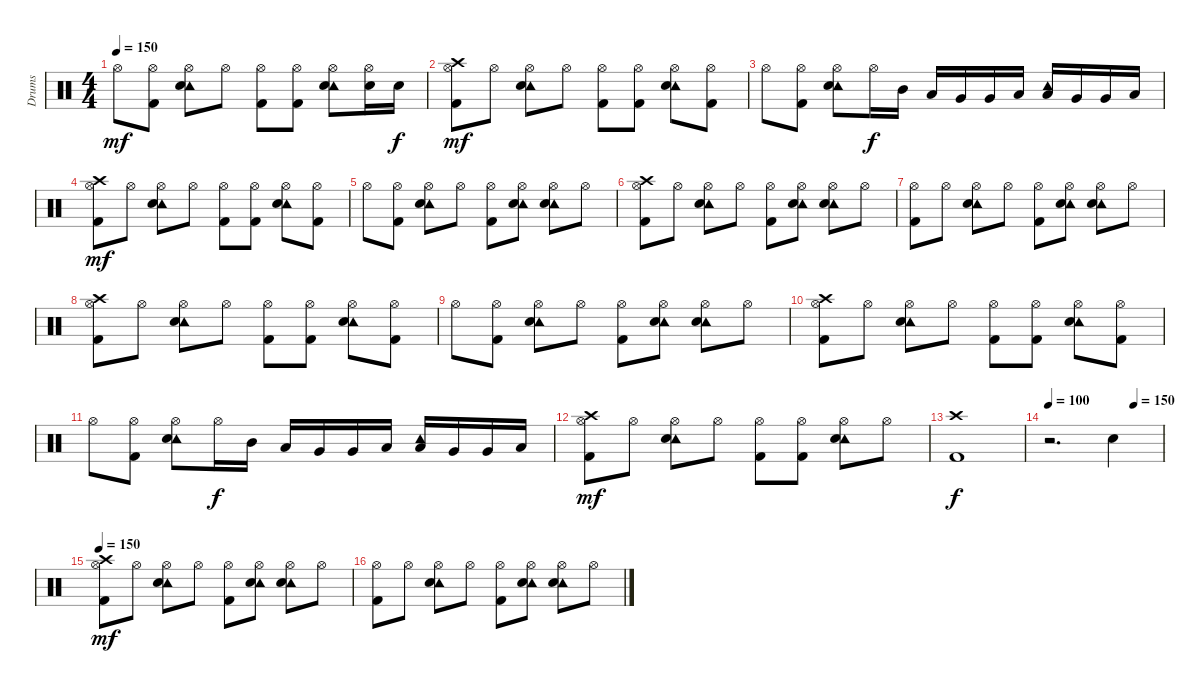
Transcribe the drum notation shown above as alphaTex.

\track ("Drums" "Drums") {instrument percussion}
\staff {score}
\articulation defaults
\ts (4 4)
\tempo 150
\clef neutral
\ks c "Hi-Hat (open)".8{dy mf}
("Hi-Hat (open)" "Kick (hit) 2").8 ("Tambourine (hit)" "Hi-Hat (open)" "Snare (hit) 2").8 "Hi-Hat (open)".8 ("Hi-Hat (open)" "Kick (hit) 2").8 ("Hi-Hat (open)" "Kick (hit) 2").8 ("Tambourine (hit)" "Hi-Hat (open)" "Snare (hit) 2").8 ("Hi-Hat (open)" "Snare (hit) 2").16 "Snare (hit) 2".16{dy f} |
("Crash high (hit)" "Hi-Hat (open)" "Kick (hit) 2").8{dy mf} "Hi-Hat (open)".8 ("Tambourine (hit)" "Hi-Hat (open)" "Snare (hit) 2").8 "Hi-Hat (open)".8 ("Hi-Hat (open)" "Kick (hit) 2").8 ("Hi-Hat (open)" "Kick (hit) 2").8 ("Tambourine (hit)" "Hi-Hat (open)" "Snare (hit) 2").8 ("Hi-Hat (open)" "Kick (hit) 2").8 |
"Hi-Hat (open)".8 ("Hi-Hat (open)" "Kick (hit) 2").8 ("Tambourine (hit)" "Hi-Hat (open)" "Snare (hit) 2").8 "Hi-Hat (open)".16{dy f} "Mid Tom (hit)".16 "Low Tom (hit)".16 "Very Low Tom (hit)".16 "Very Low Tom (hit)".16 "Low Floor Tom (hit)".16 ("Tambourine (hit)" "Low Floor Tom (hit)").16 "Very Low Tom (hit)".16 "Very Low Tom (hit)".16 "Low Tom (hit)".16 |
("Crash high (hit)" "Hi-Hat (open)" "Kick (hit) 2").8{dy mf} "Hi-Hat (open)".8 ("Tambourine (hit)" "Hi-Hat (open)" "Snare (hit) 2").8 "Hi-Hat (open)".8 ("Hi-Hat (open)" "Kick (hit) 2").8 ("Hi-Hat (open)" "Kick (hit) 2").8 ("Tambourine (hit)" "Hi-Hat (open)" "Snare (hit) 2").8 ("Hi-Hat (open)" "Kick (hit) 2").8 |
"Hi-Hat (open)".8 ("Hi-Hat (open)" "Kick (hit) 2").8 ("Tambourine (hit)" "Hi-Hat (open)" "Snare (hit) 2").8 "Hi-Hat (open)".8 ("Hi-Hat (open)" "Kick (hit) 2").8 ("Tambourine (hit)" "Hi-Hat (open)" "Snare (hit) 2").8 ("Tambourine (hit)" "Hi-Hat (open)" "Snare (hit) 2").8 "Hi-Hat (open)".8 |
("Crash high (hit)" "Hi-Hat (open)" "Kick (hit) 2").8 "Hi-Hat (open)".8 ("Tambourine (hit)" "Hi-Hat (open)" "Snare (hit) 2").8 "Hi-Hat (open)".8 ("Hi-Hat (open)" "Kick (hit) 2").8 ("Tambourine (hit)" "Hi-Hat (open)" "Snare (hit) 2").8 ("Tambourine (hit)" "Hi-Hat (open)" "Snare (hit) 2").8 "Hi-Hat (open)".8 |
("Hi-Hat (open)" "Kick (hit) 2").8 "Hi-Hat (open)".8 ("Tambourine (hit)" "Hi-Hat (open)" "Snare (hit) 2").8 "Hi-Hat (open)".8 ("Hi-Hat (open)" "Kick (hit) 2").8 ("Tambourine (hit)" "Hi-Hat (open)" "Snare (hit) 2").8 ("Tambourine (hit)" "Hi-Hat (open)" "Snare (hit) 2").8 "Hi-Hat (open)".8 |
("Crash high (hit)" "Hi-Hat (open)" "Kick (hit) 2").8 "Hi-Hat (open)".8 ("Tambourine (hit)" "Hi-Hat (open)" "Snare (hit) 2").8 "Hi-Hat (open)".8 ("Hi-Hat (open)" "Kick (hit) 2").8 ("Hi-Hat (open)" "Kick (hit) 2").8 ("Tambourine (hit)" "Hi-Hat (open)" "Snare (hit) 2").8 ("Hi-Hat (open)" "Kick (hit) 2").8 |
"Hi-Hat (open)".8 ("Hi-Hat (open)" "Kick (hit) 2").8 ("Tambourine (hit)" "Hi-Hat (open)" "Snare (hit) 2").8 "Hi-Hat (open)".8 ("Hi-Hat (open)" "Kick (hit) 2").8 ("Tambourine (hit)" "Hi-Hat (open)" "Snare (hit) 2").8 ("Tambourine (hit)" "Hi-Hat (open)" "Snare (hit) 2").8 "Hi-Hat (open)".8 |
("Crash high (hit)" "Hi-Hat (open)" "Kick (hit) 2").8 "Hi-Hat (open)".8 ("Tambourine (hit)" "Hi-Hat (open)" "Snare (hit) 2").8 "Hi-Hat (open)".8 ("Hi-Hat (open)" "Kick (hit) 2").8 ("Hi-Hat (open)" "Kick (hit) 2").8 ("Tambourine (hit)" "Hi-Hat (open)" "Snare (hit) 2").8 ("Hi-Hat (open)" "Kick (hit) 2").8 |
"Hi-Hat (open)".8 ("Hi-Hat (open)" "Kick (hit) 2").8 ("Tambourine (hit)" "Hi-Hat (open)" "Snare (hit) 2").8 "Hi-Hat (open)".16{dy f} "Mid Tom (hit)".16 "Low Tom (hit)".16 "Very Low Tom (hit)".16 "Very Low Tom (hit)".16 "Low Floor Tom (hit)".16 ("Tambourine (hit)" "Low Floor Tom (hit)").16 "Very Low Tom (hit)".16 "Very Low Tom (hit)".16 "Low Tom (hit)".16 |
("Crash high (hit)" "Hi-Hat (open)" "Kick (hit) 2").8{dy mf} "Hi-Hat (open)".8 ("Tambourine (hit)" "Hi-Hat (open)" "Snare (hit) 2").8 "Hi-Hat (open)".8 ("Hi-Hat (open)" "Kick (hit) 2").8 ("Hi-Hat (open)" "Kick (hit) 2").8 ("Tambourine (hit)" "Hi-Hat (open)" "Snare (hit) 2").8 "Hi-Hat (open)".8 |
("Crash high (hit)" "Kick (hit) 2").1{dy f} |
\tempo 100
\tempo (150 0.75)
r.2{d} "Snare (hit) 2".4 |
\tempo 150
("Crash high (hit)" "Hi-Hat (open)" "Kick (hit) 2").8{dy mf} "Hi-Hat (open)".8 ("Tambourine (hit)" "Hi-Hat (open)" "Snare (hit) 2").8 "Hi-Hat (open)".8 ("Hi-Hat (open)" "Kick (hit) 2").8 ("Tambourine (hit)" "Hi-Hat (open)" "Snare (hit) 2").8 ("Tambourine (hit)" "Hi-Hat (open)" "Snare (hit) 2").8 "Hi-Hat (open)".8 |
("Hi-Hat (open)" "Kick (hit) 2").8 "Hi-Hat (open)".8 ("Tambourine (hit)" "Hi-Hat (open)" "Snare (hit) 2").8 "Hi-Hat (open)".8 ("Hi-Hat (open)" "Kick (hit) 2").8 ("Tambourine (hit)" "Hi-Hat (open)" "Snare (hit) 2").8 ("Tambourine (hit)" "Hi-Hat (open)" "Snare (hit) 2").8 "Hi-Hat (open)".8
